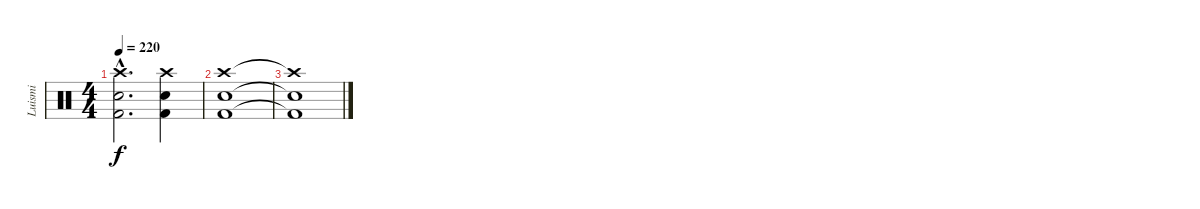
\track ("Luismi" "Luismi") {instrument percussion}
\staff {score}
\articulation defaults
\ts (4 4)
\tempo 220
\clef neutral
\ks c
("Crash high (hit)"{hac} "Snare (hit) 2"{hac} "Kick (hit) 2"{hac}).2{d dy f} ("Crash high (hit)" "Snare (hit) 2" "Kick (hit) 2").4 |
("Crash high (hit)" "Snare (hit) 2" "Kick (hit) 2").1 |
("Crash high (hit)"{t} "Snare (hit) 2"{t} "Kick (hit) 2"{t}).1
